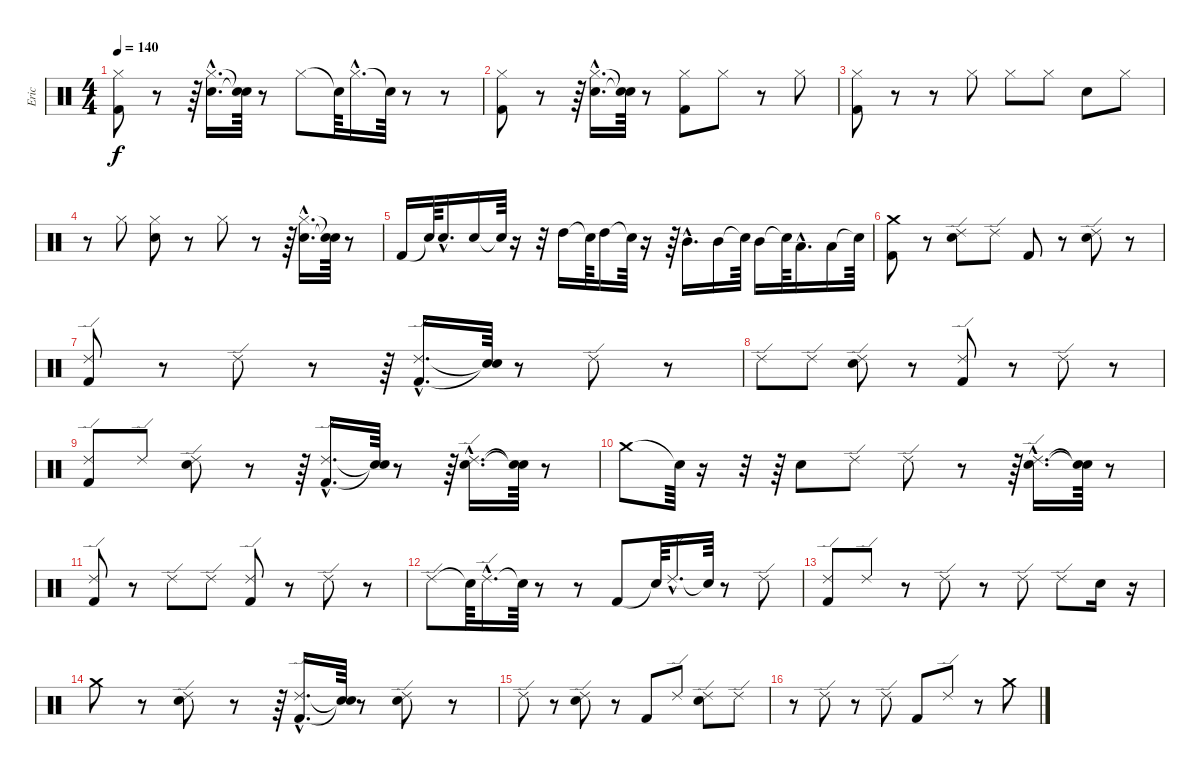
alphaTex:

\track ("Eric" "Eric") {instrument percussion}
\staff {score}
\articulation defaults
\ts (4 4)
\tempo 140
\clef neutral
\ks c
("Kick (hit) 2" "Hi-Hat (closed)").8{dy f} r.8 r.64 ("Hi-Hat (closed)"{hac} "Electric Snare (hit)"{hac}).16{d} ("Snare (hit)"{t} "Snare (hit)"{t}).64 r.8 "Hi-Hat (closed)".8 "Snare (hit)"{t}.64 "Hi-Hat (closed)"{hac}.16{d} "Snare (hit)"{t}.64 r.8 r.8 |
("Kick (hit) 2" "Hi-Hat (closed)").8 r.8 r.64 ("Hi-Hat (closed)"{hac} "Electric Snare (hit)"{hac}).16{d} ("Snare (hit)"{t} "Snare (hit)"{t}).64 r.8 ("Kick (hit) 2" "Hi-Hat (closed)").8 "Hi-Hat (closed)".8 r.8 "Hi-Hat (closed)".8 |
("Kick (hit) 2" "Hi-Hat (closed)").8 r.8 r.8 "Hi-Hat (closed)".8 "Hi-Hat (closed)".8 "Hi-Hat (closed)".8 "Electric Snare (hit)".8 "Hi-Hat (closed)".8 |
r.8 "Hi-Hat (closed)".8 ("Hi-Hat (closed)" "Electric Snare (hit)").8 r.8 "Hi-Hat (closed)".8 r.8 r.64 ("Hi-Hat (closed)"{hac} "Electric Snare (hit)"{hac}).16{d} ("Snare (hit)"{t} "Snare (hit)"{t}).64 r.8 |
"Kick (hit) 2".16 "Snare (hit)"{t}.64 "Electric Snare (hit)"{hac}.16{d} "Electric Snare (hit)".16 "Snare (hit)"{t}.64 r.16 r.32 "High Tom (hit)".16 "Snare (hit)"{t}.64 "High Tom (hit)".16 "Snare (hit)"{t}.64 r.16 r.64 "Mid Tom (hit)"{hac}.16{d} "Mid Tom (hit)".16 "Snare (hit)"{t}.64 "Mid Tom (hit)".16 "Snare (hit)"{t}.64 "Low Tom (hit)"{hac}.16{d} "Low Tom (hit)".16 "Snare (hit)"{t}.64 |
("Kick (hit) 2" "Crash medium (hit)").8 r.8 ("Electric Snare (hit)" "Ride (edge) 2").8 "Ride (edge) 2".8 "Kick (hit) 2".8 r.8 ("Electric Snare (hit)" "Ride (edge) 2").8 r.8 |
("Kick (hit) 2" "Ride (edge) 2").8 r.8 "Ride (edge) 2".8 r.8 r.64 ("Ride (edge) 2"{hac} "Kick (hit) 2"{hac}).16{d} ("Snare (hit)"{t} "Snare (hit)"{t}).64 r.8 "Ride (edge) 2".8 r.8 |
"Ride (edge) 2".8 "Ride (edge) 2".8 ("Electric Snare (hit)" "Ride (edge) 2").8 r.8 ("Ride (edge) 2" "Kick (hit) 2").8 r.8 "Ride (edge) 2".8 r.8 |
("Kick (hit) 2" "Ride (edge) 2").8 "Ride (edge) 2".8 ("Electric Snare (hit)" "Ride (edge) 2").8 r.8 r.64 ("Ride (edge) 2"{hac} "Kick (hit) 2"{hac}).16{d} ("Snare (hit)"{t} "Snare (hit)"{t}).64 r.8 r.64 ("Electric Snare (hit)"{hac} "Ride (edge) 2"{hac}).16{d} ("Snare (hit)"{t} "Snare (hit)"{t}).64 r.8 |
"Crash medium (hit)".8 "Snare (hit)"{t}.64 r.16 r.32 r.64 "Electric Snare (hit)".8 "Ride (edge) 2".8 "Ride (edge) 2".8 r.8 r.64 ("Ride (edge) 2"{hac} "Electric Snare (hit)"{hac}).16{d} ("Snare (hit)"{t} "Snare (hit)"{t}).64 r.8 |
("Kick (hit) 2" "Ride (edge) 2").8 r.8 "Ride (edge) 2".8 "Ride (edge) 2".8 ("Ride (edge) 2" "Kick (hit) 2").8 r.8 "Ride (edge) 2".8 r.8 |
"Ride (edge) 2".8 "Snare (hit)"{t}.64 "Ride (edge) 2"{hac}.16{d} "Snare (hit)"{t}.64 r.8 r.8 "Kick (hit) 2".8 "Snare (hit)"{t}.64 "Ride (edge) 2"{hac}.16{d} "Snare (hit)"{t}.64 r.8 "Ride (edge) 2".8 |
("Kick (hit) 2" "Ride (edge) 2").8 "Ride (edge) 2".8 r.8 "Ride (edge) 2".8 r.8 "Ride (edge) 2".8 "Ride (edge) 2".8 "Electric Snare (hit)".16 r.16 |
"Crash medium (hit)".8 r.8 ("Electric Snare (hit)" "Ride (edge) 2").8 r.8 r.64 ("Ride (edge) 2"{hac} "Kick (hit) 2"{hac}).16{d} ("Snare (hit)"{t} "Snare (hit)"{t}).64 r.8 ("Electric Snare (hit)" "Ride (edge) 2").8 r.8 |
"Ride (edge) 2".8 r.8 ("Electric Snare (hit)" "Ride (edge) 2").8 r.8 "Kick (hit) 2".8 "Ride (edge) 2".8 ("Electric Snare (hit)" "Ride (edge) 2").8 "Ride (edge) 2".8 |
r.8 "Ride (edge) 2".8 r.8 "Ride (edge) 2".8 "Kick (hit) 2".8 "Ride (edge) 2".8 r.8 "Crash medium (hit)".8
